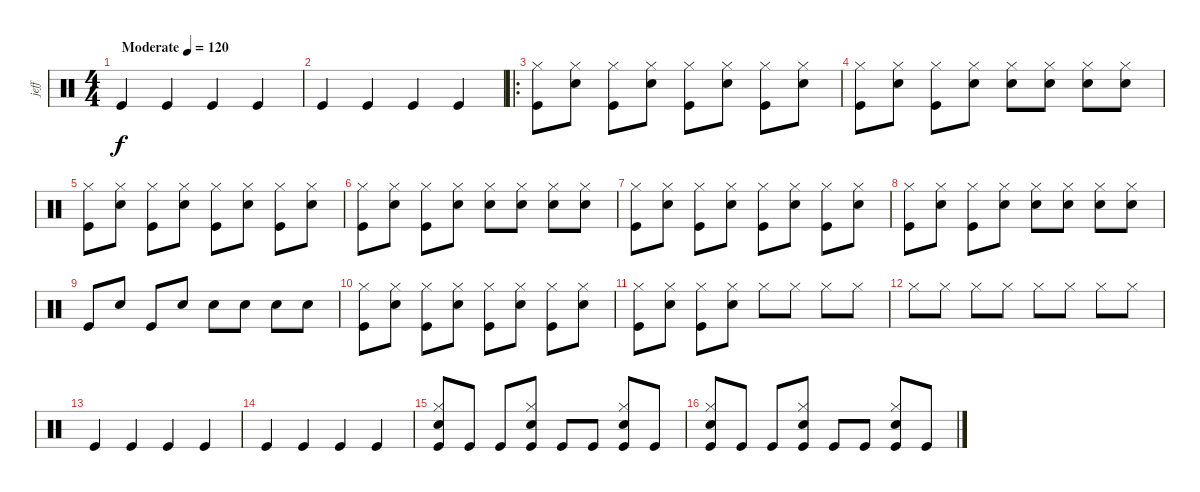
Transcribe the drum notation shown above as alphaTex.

\track ("jeff" "jeff") {instrument percussion}
\staff {score}
\articulation defaults
\ts (4 4)
\tempo (120 "Moderate")
\clef neutral
\ks c "Kick (hit)".4{dy f} "Kick (hit)".4 "Kick (hit)".4 "Kick (hit)".4
|
"Kick (hit)".4 "Kick (hit)".4 "Kick (hit)".4 "Kick (hit)".4 |
\ro
("Hi-Hat (closed)" "Kick (hit)").8 ("Snare (hit) 2" "Hi-Hat (closed)").8 ("Kick (hit)" "Hi-Hat (closed)").8 ("Snare (hit) 2" "Hi-Hat (closed)").8 ("Kick (hit)" "Hi-Hat (closed)").8 ("Snare (hit) 2" "Hi-Hat (closed)").8 ("Kick (hit)" "Hi-Hat (closed)").8 ("Snare (hit) 2" "Hi-Hat (closed)").8 |
("Kick (hit)" "Hi-Hat (closed)").8 ("Snare (hit) 2" "Hi-Hat (closed)").8 ("Kick (hit)" "Hi-Hat (closed)").8 ("Snare (hit) 2" "Hi-Hat (closed)").8 ("Hi-Hat (closed)" "Snare (hit) 2").8 ("Hi-Hat (closed)" "Snare (hit) 2").8 ("Snare (hit) 2" "Hi-Hat (closed)").8 ("Snare (hit) 2" "Hi-Hat (closed)").8 |
("Hi-Hat (closed)" "Kick (hit)").8 ("Snare (hit) 2" "Hi-Hat (closed)").8 ("Kick (hit)" "Hi-Hat (closed)").8 ("Snare (hit) 2" "Hi-Hat (closed)").8 ("Kick (hit)" "Hi-Hat (closed)").8 ("Snare (hit) 2" "Hi-Hat (closed)").8 ("Kick (hit)" "Hi-Hat (closed)").8 ("Snare (hit) 2" "Hi-Hat (closed)").8 |
("Kick (hit)" "Hi-Hat (closed)").8 ("Snare (hit) 2" "Hi-Hat (closed)").8 ("Kick (hit)" "Hi-Hat (closed)").8 ("Snare (hit) 2" "Hi-Hat (closed)").8 ("Hi-Hat (closed)" "Snare (hit) 2").8 ("Hi-Hat (closed)" "Snare (hit) 2").8 ("Snare (hit) 2" "Hi-Hat (closed)").8 ("Snare (hit) 2" "Hi-Hat (closed)").8 |
("Hi-Hat (closed)" "Kick (hit)").8 ("Snare (hit) 2" "Hi-Hat (closed)").8 ("Kick (hit)" "Hi-Hat (closed)").8 ("Snare (hit) 2" "Hi-Hat (closed)").8 ("Kick (hit)" "Hi-Hat (closed)").8 ("Snare (hit) 2" "Hi-Hat (closed)").8 ("Kick (hit)" "Hi-Hat (closed)").8 ("Snare (hit) 2" "Hi-Hat (closed)").8 |
("Kick (hit)" "Hi-Hat (closed)").8 ("Snare (hit) 2" "Hi-Hat (closed)").8 ("Kick (hit)" "Hi-Hat (closed)").8 ("Snare (hit) 2" "Hi-Hat (closed)").8 ("Hi-Hat (closed)" "Snare (hit) 2").8 ("Hi-Hat (closed)" "Snare (hit) 2").8 ("Snare (hit) 2" "Hi-Hat (closed)").8 ("Snare (hit) 2" "Hi-Hat (closed)").8 |
"Kick (hit)".8 "Snare (hit) 2".8 "Kick (hit)".8 "Snare (hit) 2".8 "Snare (hit) 2".8 "Snare (hit) 2".8 "Snare (hit) 2".8 "Snare (hit) 2".8 |
("Hi-Hat (closed)" "Kick (hit)").8 ("Snare (hit) 2" "Hi-Hat (closed)").8 ("Kick (hit)" "Hi-Hat (closed)").8 ("Snare (hit) 2" "Hi-Hat (closed)").8 ("Kick (hit)" "Hi-Hat (closed)").8 ("Snare (hit) 2" "Hi-Hat (closed)").8 ("Kick (hit)" "Hi-Hat (closed)").8 ("Snare (hit) 2" "Hi-Hat (closed)").8 |
("Kick (hit)" "Hi-Hat (closed)").8 ("Snare (hit) 2" "Hi-Hat (closed)").8 ("Kick (hit)" "Hi-Hat (closed)").8 ("Snare (hit) 2" "Hi-Hat (closed)").8 "Hi-Hat (closed)".8 "Hi-Hat (closed)".8 "Hi-Hat (closed)".8 "Hi-Hat (closed)".8 |
"Hi-Hat (closed)".8 "Hi-Hat (closed)".8 "Hi-Hat (closed)".8 "Hi-Hat (closed)".8 "Hi-Hat (closed)".8 "Hi-Hat (closed)".8 "Hi-Hat (closed)".8 "Hi-Hat (closed)".8 |
"Kick (hit)".4 "Kick (hit)".4 "Kick (hit)".4 "Kick (hit)".4 |
"Kick (hit)".4 "Kick (hit)".4 "Kick (hit)".4 "Kick (hit)".4 |
("Snare (hit) 2" "Hi-Hat (closed)" "Kick (hit)").8 "Kick (hit)".8 "Kick (hit)".8 ("Kick (hit)" "Hi-Hat (closed)" "Snare (hit) 2").8 "Kick (hit)".8 "Kick (hit)".8 ("Kick (hit)" "Snare (hit) 2" "Hi-Hat (closed)").8 "Kick (hit)".8 |
("Snare (hit) 2" "Hi-Hat (closed)" "Kick (hit)").8 "Kick (hit)".8 "Kick (hit)".8 ("Kick (hit)" "Hi-Hat (closed)" "Snare (hit) 2").8 "Kick (hit)".8 "Kick (hit)".8 ("Kick (hit)" "Snare (hit) 2" "Hi-Hat (closed)").8 "Kick (hit)".8
